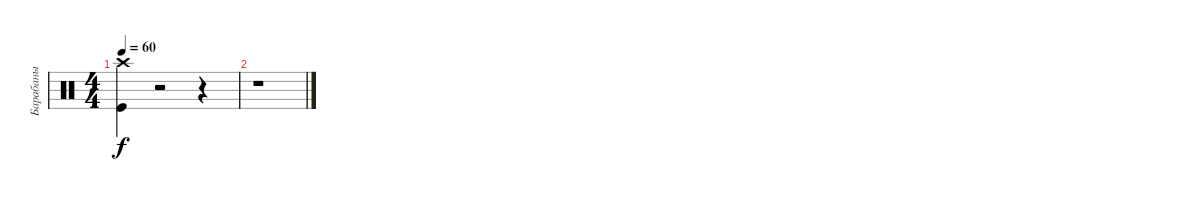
\track ("Барабаны" "Барабаны") {instrument percussion}
\staff {score}
\articulation defaults
\ts (4 4)
\tempo 60
\clef neutral
\ks c
("Crash high (hit)" "Kick (hit)").4{dy f} r.2 r.4 |
r.1
